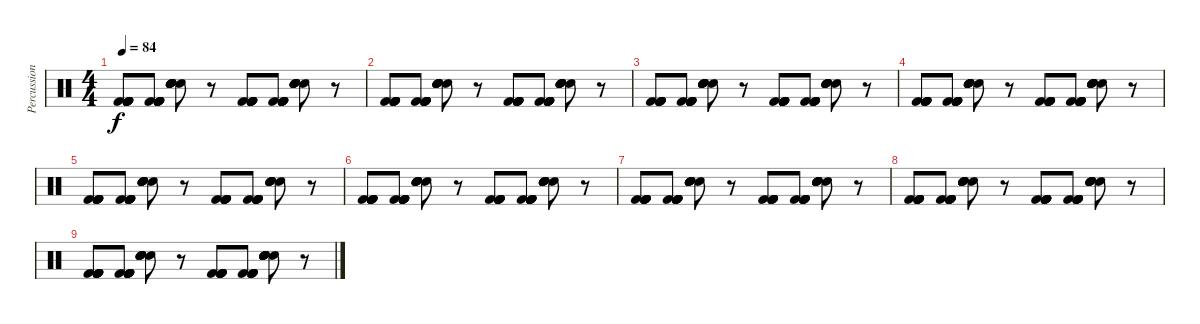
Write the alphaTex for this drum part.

\track ("Percussion" "Percussion") {instrument percussion}
\staff {score}
\articulation defaults
\ts (4 4)
\tempo 84
\clef neutral
\ks c
("Kick (hit) 2" "Kick (hit) 2" "Kick (hit) 2" "Kick (hit) 2" "Kick (hit) 2" "Kick (hit) 2").8{dy f} ("Kick (hit) 2" "Kick (hit) 2" "Kick (hit) 2" "Kick (hit) 2" "Kick (hit) 2" "Kick (hit) 2").8 ("Hand Clap (hit)" "Hand Clap (hit)" "Hand Clap (hit)" "Hand Clap (hit)" "Hand Clap (hit)" "Hand Clap (hit)").8 r.8 ("Kick (hit) 2" "Kick (hit) 2" "Kick (hit) 2" "Kick (hit) 2" "Kick (hit) 2" "Kick (hit) 2").8 ("Kick (hit) 2" "Kick (hit) 2" "Kick (hit) 2" "Kick (hit) 2" "Kick (hit) 2" "Kick (hit) 2").8 ("Hand Clap (hit)" "Hand Clap (hit)" "Hand Clap (hit)" "Hand Clap (hit)" "Hand Clap (hit)" "Hand Clap (hit)").8 r.8 |
("Kick (hit) 2" "Kick (hit) 2" "Kick (hit) 2" "Kick (hit) 2" "Kick (hit) 2" "Kick (hit) 2").8 ("Kick (hit) 2" "Kick (hit) 2" "Kick (hit) 2" "Kick (hit) 2" "Kick (hit) 2" "Kick (hit) 2").8 ("Hand Clap (hit)" "Hand Clap (hit)" "Hand Clap (hit)" "Hand Clap (hit)" "Hand Clap (hit)" "Hand Clap (hit)").8 r.8 ("Kick (hit) 2" "Kick (hit) 2" "Kick (hit) 2" "Kick (hit) 2" "Kick (hit) 2" "Kick (hit) 2").8 ("Kick (hit) 2" "Kick (hit) 2" "Kick (hit) 2" "Kick (hit) 2" "Kick (hit) 2" "Kick (hit) 2").8 ("Hand Clap (hit)" "Hand Clap (hit)" "Hand Clap (hit)" "Hand Clap (hit)" "Hand Clap (hit)" "Hand Clap (hit)").8 r.8 |
("Kick (hit) 2" "Kick (hit) 2" "Kick (hit) 2" "Kick (hit) 2" "Kick (hit) 2" "Kick (hit) 2").8 ("Kick (hit) 2" "Kick (hit) 2" "Kick (hit) 2" "Kick (hit) 2" "Kick (hit) 2" "Kick (hit) 2").8 ("Hand Clap (hit)" "Hand Clap (hit)" "Hand Clap (hit)" "Hand Clap (hit)" "Hand Clap (hit)" "Hand Clap (hit)").8 r.8 ("Kick (hit) 2" "Kick (hit) 2" "Kick (hit) 2" "Kick (hit) 2" "Kick (hit) 2" "Kick (hit) 2").8 ("Kick (hit) 2" "Kick (hit) 2" "Kick (hit) 2" "Kick (hit) 2" "Kick (hit) 2" "Kick (hit) 2").8 ("Hand Clap (hit)" "Hand Clap (hit)" "Hand Clap (hit)" "Hand Clap (hit)" "Hand Clap (hit)" "Hand Clap (hit)").8 r.8 |
("Kick (hit) 2" "Kick (hit) 2" "Kick (hit) 2" "Kick (hit) 2" "Kick (hit) 2" "Kick (hit) 2").8 ("Kick (hit) 2" "Kick (hit) 2" "Kick (hit) 2" "Kick (hit) 2" "Kick (hit) 2" "Kick (hit) 2").8 ("Hand Clap (hit)" "Hand Clap (hit)" "Hand Clap (hit)" "Hand Clap (hit)" "Hand Clap (hit)" "Hand Clap (hit)").8 r.8 ("Kick (hit) 2" "Kick (hit) 2" "Kick (hit) 2" "Kick (hit) 2" "Kick (hit) 2" "Kick (hit) 2").8 ("Kick (hit) 2" "Kick (hit) 2" "Kick (hit) 2" "Kick (hit) 2" "Kick (hit) 2" "Kick (hit) 2").8 ("Hand Clap (hit)" "Hand Clap (hit)" "Hand Clap (hit)" "Hand Clap (hit)" "Hand Clap (hit)" "Hand Clap (hit)").8 r.8 |
("Kick (hit) 2" "Kick (hit) 2" "Kick (hit) 2" "Kick (hit) 2" "Kick (hit) 2" "Kick (hit) 2").8 ("Kick (hit) 2" "Kick (hit) 2" "Kick (hit) 2" "Kick (hit) 2" "Kick (hit) 2" "Kick (hit) 2").8 ("Hand Clap (hit)" "Hand Clap (hit)" "Hand Clap (hit)" "Hand Clap (hit)" "Hand Clap (hit)" "Hand Clap (hit)").8 r.8 ("Kick (hit) 2" "Kick (hit) 2" "Kick (hit) 2" "Kick (hit) 2" "Kick (hit) 2" "Kick (hit) 2").8 ("Kick (hit) 2" "Kick (hit) 2" "Kick (hit) 2" "Kick (hit) 2" "Kick (hit) 2" "Kick (hit) 2").8 ("Hand Clap (hit)" "Hand Clap (hit)" "Hand Clap (hit)" "Hand Clap (hit)" "Hand Clap (hit)" "Hand Clap (hit)").8 r.8 |
("Kick (hit) 2" "Kick (hit) 2" "Kick (hit) 2" "Kick (hit) 2" "Kick (hit) 2" "Kick (hit) 2").8 ("Kick (hit) 2" "Kick (hit) 2" "Kick (hit) 2" "Kick (hit) 2" "Kick (hit) 2" "Kick (hit) 2").8 ("Hand Clap (hit)" "Hand Clap (hit)" "Hand Clap (hit)" "Hand Clap (hit)" "Hand Clap (hit)" "Hand Clap (hit)").8 r.8 ("Kick (hit) 2" "Kick (hit) 2" "Kick (hit) 2" "Kick (hit) 2" "Kick (hit) 2" "Kick (hit) 2").8 ("Kick (hit) 2" "Kick (hit) 2" "Kick (hit) 2" "Kick (hit) 2" "Kick (hit) 2" "Kick (hit) 2").8 ("Hand Clap (hit)" "Hand Clap (hit)" "Hand Clap (hit)" "Hand Clap (hit)" "Hand Clap (hit)" "Hand Clap (hit)").8 r.8 |
("Kick (hit) 2" "Kick (hit) 2" "Kick (hit) 2" "Kick (hit) 2" "Kick (hit) 2" "Kick (hit) 2").8 ("Kick (hit) 2" "Kick (hit) 2" "Kick (hit) 2" "Kick (hit) 2" "Kick (hit) 2" "Kick (hit) 2").8 ("Hand Clap (hit)" "Hand Clap (hit)" "Hand Clap (hit)" "Hand Clap (hit)" "Hand Clap (hit)" "Hand Clap (hit)").8 r.8 ("Kick (hit) 2" "Kick (hit) 2" "Kick (hit) 2" "Kick (hit) 2" "Kick (hit) 2" "Kick (hit) 2").8 ("Kick (hit) 2" "Kick (hit) 2" "Kick (hit) 2" "Kick (hit) 2" "Kick (hit) 2" "Kick (hit) 2").8 ("Hand Clap (hit)" "Hand Clap (hit)" "Hand Clap (hit)" "Hand Clap (hit)" "Hand Clap (hit)" "Hand Clap (hit)").8 r.8 |
("Kick (hit) 2" "Kick (hit) 2" "Kick (hit) 2" "Kick (hit) 2" "Kick (hit) 2" "Kick (hit) 2").8 ("Kick (hit) 2" "Kick (hit) 2" "Kick (hit) 2" "Kick (hit) 2" "Kick (hit) 2" "Kick (hit) 2").8 ("Hand Clap (hit)" "Hand Clap (hit)" "Hand Clap (hit)" "Hand Clap (hit)" "Hand Clap (hit)" "Hand Clap (hit)").8 r.8 ("Kick (hit) 2" "Kick (hit) 2" "Kick (hit) 2" "Kick (hit) 2" "Kick (hit) 2" "Kick (hit) 2").8 ("Kick (hit) 2" "Kick (hit) 2" "Kick (hit) 2" "Kick (hit) 2" "Kick (hit) 2" "Kick (hit) 2").8 ("Hand Clap (hit)" "Hand Clap (hit)" "Hand Clap (hit)" "Hand Clap (hit)" "Hand Clap (hit)" "Hand Clap (hit)").8 r.8 |
("Kick (hit) 2" "Kick (hit) 2" "Kick (hit) 2" "Kick (hit) 2" "Kick (hit) 2" "Kick (hit) 2").8 ("Kick (hit) 2" "Kick (hit) 2" "Kick (hit) 2" "Kick (hit) 2" "Kick (hit) 2" "Kick (hit) 2").8 ("Hand Clap (hit)" "Hand Clap (hit)" "Hand Clap (hit)" "Hand Clap (hit)" "Hand Clap (hit)" "Hand Clap (hit)").8 r.8 ("Kick (hit) 2" "Kick (hit) 2" "Kick (hit) 2" "Kick (hit) 2" "Kick (hit) 2" "Kick (hit) 2").8 ("Kick (hit) 2" "Kick (hit) 2" "Kick (hit) 2" "Kick (hit) 2" "Kick (hit) 2" "Kick (hit) 2").8 ("Hand Clap (hit)" "Hand Clap (hit)" "Hand Clap (hit)" "Hand Clap (hit)" "Hand Clap (hit)" "Hand Clap (hit)").8 r.8
